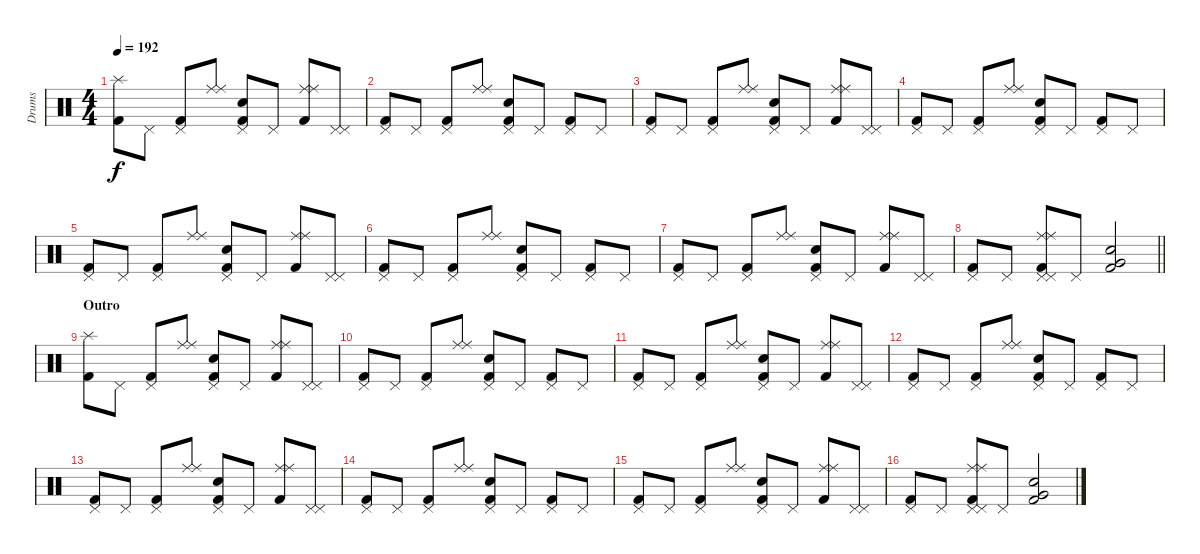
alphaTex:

\track ("Drums" "Drums") {instrument percussion}
\staff {score}
\articulation defaults
\ts (4 4)
\tempo 192
\clef neutral
\ks c
("Splash (hit)" "Kick (hit) 2").8{dy f} "Pedal Hi-Hat (hit)".8 ("Pedal Hi-Hat (hit)" "Kick (hit) 2").8 ("Ride (middle)" "Ride (middle)").8 ("Pedal Hi-Hat (hit)" "Electric Snare (hit)" "Kick (hit) 2").8 "Pedal Hi-Hat (hit)".8 ("Ride (middle)" "Ride (middle)" "Kick (hit) 2").8 ("Pedal Hi-Hat (hit)" "Pedal Hi-Hat (hit)").8 |
("Pedal Hi-Hat (hit)" "Kick (hit) 2").8 "Pedal Hi-Hat (hit)".8 ("Pedal Hi-Hat (hit)" "Kick (hit) 2").8 ("Ride (middle)" "Ride (middle)").8 ("Pedal Hi-Hat (hit)" "Electric Snare (hit)" "Kick (hit) 2").8 "Pedal Hi-Hat (hit)".8 ("Pedal Hi-Hat (hit)" "Kick (hit) 2").8 "Pedal Hi-Hat (hit)".8 |
("Pedal Hi-Hat (hit)" "Kick (hit) 2").8 "Pedal Hi-Hat (hit)".8 ("Pedal Hi-Hat (hit)" "Kick (hit) 2").8 ("Ride (middle)" "Ride (middle)").8 ("Pedal Hi-Hat (hit)" "Electric Snare (hit)" "Kick (hit) 2").8 "Pedal Hi-Hat (hit)".8 ("Ride (middle)" "Ride (middle)" "Kick (hit) 2").8 ("Pedal Hi-Hat (hit)" "Pedal Hi-Hat (hit)").8 |
("Pedal Hi-Hat (hit)" "Kick (hit) 2").8 "Pedal Hi-Hat (hit)".8 ("Pedal Hi-Hat (hit)" "Kick (hit) 2").8 ("Ride (middle)" "Ride (middle)").8 ("Pedal Hi-Hat (hit)" "Electric Snare (hit)" "Kick (hit) 2").8 "Pedal Hi-Hat (hit)".8 ("Pedal Hi-Hat (hit)" "Kick (hit) 2").8 "Pedal Hi-Hat (hit)".8 |
("Pedal Hi-Hat (hit)" "Kick (hit) 2").8 "Pedal Hi-Hat (hit)".8 ("Pedal Hi-Hat (hit)" "Kick (hit) 2").8 ("Ride (middle)" "Ride (middle)").8 ("Pedal Hi-Hat (hit)" "Electric Snare (hit)" "Kick (hit) 2").8 "Pedal Hi-Hat (hit)".8 ("Ride (middle)" "Ride (middle)" "Kick (hit) 2").8 ("Pedal Hi-Hat (hit)" "Pedal Hi-Hat (hit)").8 |
("Pedal Hi-Hat (hit)" "Kick (hit) 2").8 "Pedal Hi-Hat (hit)".8 ("Pedal Hi-Hat (hit)" "Kick (hit) 2").8 ("Ride (middle)" "Ride (middle)").8 ("Pedal Hi-Hat (hit)" "Electric Snare (hit)" "Kick (hit) 2").8 "Pedal Hi-Hat (hit)".8 ("Pedal Hi-Hat (hit)" "Kick (hit) 2").8 "Pedal Hi-Hat (hit)".8 |
("Pedal Hi-Hat (hit)" "Kick (hit) 2").8 "Pedal Hi-Hat (hit)".8 ("Pedal Hi-Hat (hit)" "Kick (hit) 2").8 ("Ride (middle)" "Ride (middle)").8 ("Pedal Hi-Hat (hit)" "Electric Snare (hit)" "Kick (hit) 2").8 "Pedal Hi-Hat (hit)".8 ("Ride (middle)" "Ride (middle)" "Kick (hit) 2").8 ("Pedal Hi-Hat (hit)" "Pedal Hi-Hat (hit)").8 |
\barLineRight lightlight
("Pedal Hi-Hat (hit)" "Kick (hit) 2").8 "Pedal Hi-Hat (hit)".8 ("Ride (middle)" "Ride (middle)" "Pedal Hi-Hat (hit)" "Pedal Hi-Hat (hit)" "Kick (hit) 2").8 "Pedal Hi-Hat (hit)".8 ("Very Low Tom (hit)" "Electric Snare (hit)" "Kick (hit) 2").2 |
\section ("" "Outro")
("Splash (hit)" "Kick (hit) 2").8 "Pedal Hi-Hat (hit)".8 ("Pedal Hi-Hat (hit)" "Kick (hit) 2").8 ("Ride (middle)" "Ride (middle)").8 ("Pedal Hi-Hat (hit)" "Electric Snare (hit)" "Kick (hit) 2").8 "Pedal Hi-Hat (hit)".8 ("Ride (middle)" "Ride (middle)" "Kick (hit) 2").8 ("Pedal Hi-Hat (hit)" "Pedal Hi-Hat (hit)").8 |
("Pedal Hi-Hat (hit)" "Kick (hit) 2").8 "Pedal Hi-Hat (hit)".8 ("Pedal Hi-Hat (hit)" "Kick (hit) 2").8 ("Ride (middle)" "Ride (middle)").8 ("Pedal Hi-Hat (hit)" "Electric Snare (hit)" "Kick (hit) 2").8 "Pedal Hi-Hat (hit)".8 ("Pedal Hi-Hat (hit)" "Kick (hit) 2").8 "Pedal Hi-Hat (hit)".8 |
("Pedal Hi-Hat (hit)" "Kick (hit) 2").8 "Pedal Hi-Hat (hit)".8 ("Pedal Hi-Hat (hit)" "Kick (hit) 2").8 ("Ride (middle)" "Ride (middle)").8 ("Pedal Hi-Hat (hit)" "Electric Snare (hit)" "Kick (hit) 2").8 "Pedal Hi-Hat (hit)".8 ("Ride (middle)" "Ride (middle)" "Kick (hit) 2").8 ("Pedal Hi-Hat (hit)" "Pedal Hi-Hat (hit)").8 |
("Pedal Hi-Hat (hit)" "Kick (hit) 2").8 "Pedal Hi-Hat (hit)".8 ("Pedal Hi-Hat (hit)" "Kick (hit) 2").8 ("Ride (middle)" "Ride (middle)").8 ("Pedal Hi-Hat (hit)" "Electric Snare (hit)" "Kick (hit) 2").8 "Pedal Hi-Hat (hit)".8 ("Pedal Hi-Hat (hit)" "Kick (hit) 2").8 "Pedal Hi-Hat (hit)".8 |
("Pedal Hi-Hat (hit)" "Kick (hit) 2").8 "Pedal Hi-Hat (hit)".8 ("Pedal Hi-Hat (hit)" "Kick (hit) 2").8 ("Ride (middle)" "Ride (middle)").8 ("Pedal Hi-Hat (hit)" "Electric Snare (hit)" "Kick (hit) 2").8 "Pedal Hi-Hat (hit)".8 ("Ride (middle)" "Ride (middle)" "Kick (hit) 2").8 ("Pedal Hi-Hat (hit)" "Pedal Hi-Hat (hit)").8 |
("Pedal Hi-Hat (hit)" "Kick (hit) 2").8 "Pedal Hi-Hat (hit)".8 ("Pedal Hi-Hat (hit)" "Kick (hit) 2").8 ("Ride (middle)" "Ride (middle)").8 ("Pedal Hi-Hat (hit)" "Electric Snare (hit)" "Kick (hit) 2").8 "Pedal Hi-Hat (hit)".8 ("Pedal Hi-Hat (hit)" "Kick (hit) 2").8 "Pedal Hi-Hat (hit)".8 |
("Pedal Hi-Hat (hit)" "Kick (hit) 2").8 "Pedal Hi-Hat (hit)".8 ("Pedal Hi-Hat (hit)" "Kick (hit) 2").8 ("Ride (middle)" "Ride (middle)").8 ("Pedal Hi-Hat (hit)" "Electric Snare (hit)" "Kick (hit) 2").8 "Pedal Hi-Hat (hit)".8 ("Ride (middle)" "Ride (middle)" "Kick (hit) 2").8 ("Pedal Hi-Hat (hit)" "Pedal Hi-Hat (hit)").8 |
("Pedal Hi-Hat (hit)" "Kick (hit) 2").8 "Pedal Hi-Hat (hit)".8 ("Ride (middle)" "Ride (middle)" "Pedal Hi-Hat (hit)" "Pedal Hi-Hat (hit)" "Kick (hit) 2").8 "Pedal Hi-Hat (hit)".8 ("Very Low Tom (hit)" "Electric Snare (hit)" "Kick (hit) 2").2
